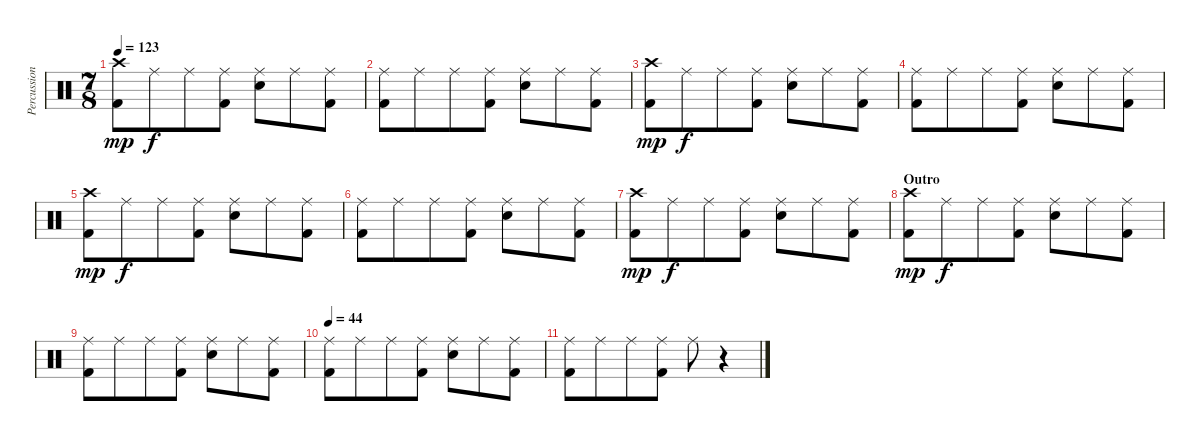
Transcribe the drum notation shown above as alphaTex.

\track ("Percussion" "Percussion") {instrument percussion}
\staff {score}
\articulation defaults
\ts (7 8)
\tempo 123
\clef neutral
\ks c
("Crash high (hit)" "Kick (hit) 2").8{dy mp} "Ride (middle)".8{dy f} "Ride (middle)".8 ("Ride (middle)" "Kick (hit) 2").8 ("Ride (middle)" "Electric Snare (hit)").8 "Ride (middle)".8 ("Ride (middle)" "Kick (hit) 2").8 |
("Ride (middle)" "Kick (hit) 2").8 "Ride (middle)".8 "Ride (middle)".8 ("Ride (middle)" "Kick (hit) 2").8 ("Ride (middle)" "Electric Snare (hit)").8 "Ride (middle)".8 ("Ride (middle)" "Kick (hit) 2").8 |
("Crash high (hit)" "Kick (hit) 2").8{dy mp} "Ride (middle)".8{dy f} "Ride (middle)".8 ("Ride (middle)" "Kick (hit) 2").8 ("Ride (middle)" "Electric Snare (hit)").8 "Ride (middle)".8 ("Ride (middle)" "Kick (hit) 2").8 |
("Ride (middle)" "Kick (hit) 2").8 "Ride (middle)".8 "Ride (middle)".8 ("Ride (middle)" "Kick (hit) 2").8 ("Ride (middle)" "Electric Snare (hit)").8 "Ride (middle)".8 ("Ride (middle)" "Kick (hit) 2").8 |
("Crash high (hit)" "Kick (hit) 2").8{dy mp} "Ride (middle)".8{dy f} "Ride (middle)".8 ("Ride (middle)" "Kick (hit) 2").8 ("Ride (middle)" "Electric Snare (hit)").8 "Ride (middle)".8 ("Ride (middle)" "Kick (hit) 2").8 |
("Ride (middle)" "Kick (hit) 2").8 "Ride (middle)".8 "Ride (middle)".8 ("Ride (middle)" "Kick (hit) 2").8 ("Ride (middle)" "Electric Snare (hit)").8 "Ride (middle)".8 ("Ride (middle)" "Kick (hit) 2").8 |
("Crash high (hit)" "Kick (hit) 2").8{dy mp} "Ride (middle)".8{dy f} "Ride (middle)".8 ("Ride (middle)" "Kick (hit) 2").8 ("Ride (middle)" "Electric Snare (hit)").8 "Ride (middle)".8 ("Ride (middle)" "Kick (hit) 2").8 |
\section ("" "Outro")
("Crash high (hit)" "Kick (hit) 2").8{dy mp} "Ride (middle)".8{dy f} "Ride (middle)".8 ("Ride (middle)" "Kick (hit) 2").8 ("Ride (middle)" "Electric Snare (hit)").8 "Ride (middle)".8 ("Ride (middle)" "Kick (hit) 2").8 |
("Ride (middle)" "Kick (hit) 2").8 "Ride (middle)".8 "Ride (middle)".8 ("Ride (middle)" "Kick (hit) 2").8 ("Ride (middle)" "Electric Snare (hit)").8 "Ride (middle)".8 ("Ride (middle)" "Kick (hit) 2").8 |
\tempo 44
("Ride (middle)" "Kick (hit) 2").8 "Ride (middle)".8 "Ride (middle)".8 ("Ride (middle)" "Kick (hit) 2").8 ("Ride (middle)" "Electric Snare (hit)").8 "Ride (middle)".8 ("Ride (middle)" "Kick (hit) 2").8 |
("Ride (middle)" "Kick (hit) 2").8 "Ride (middle)".8 "Ride (middle)".8 ("Ride (middle)" "Kick (hit) 2").8 "Ride (middle)".8 r.4
